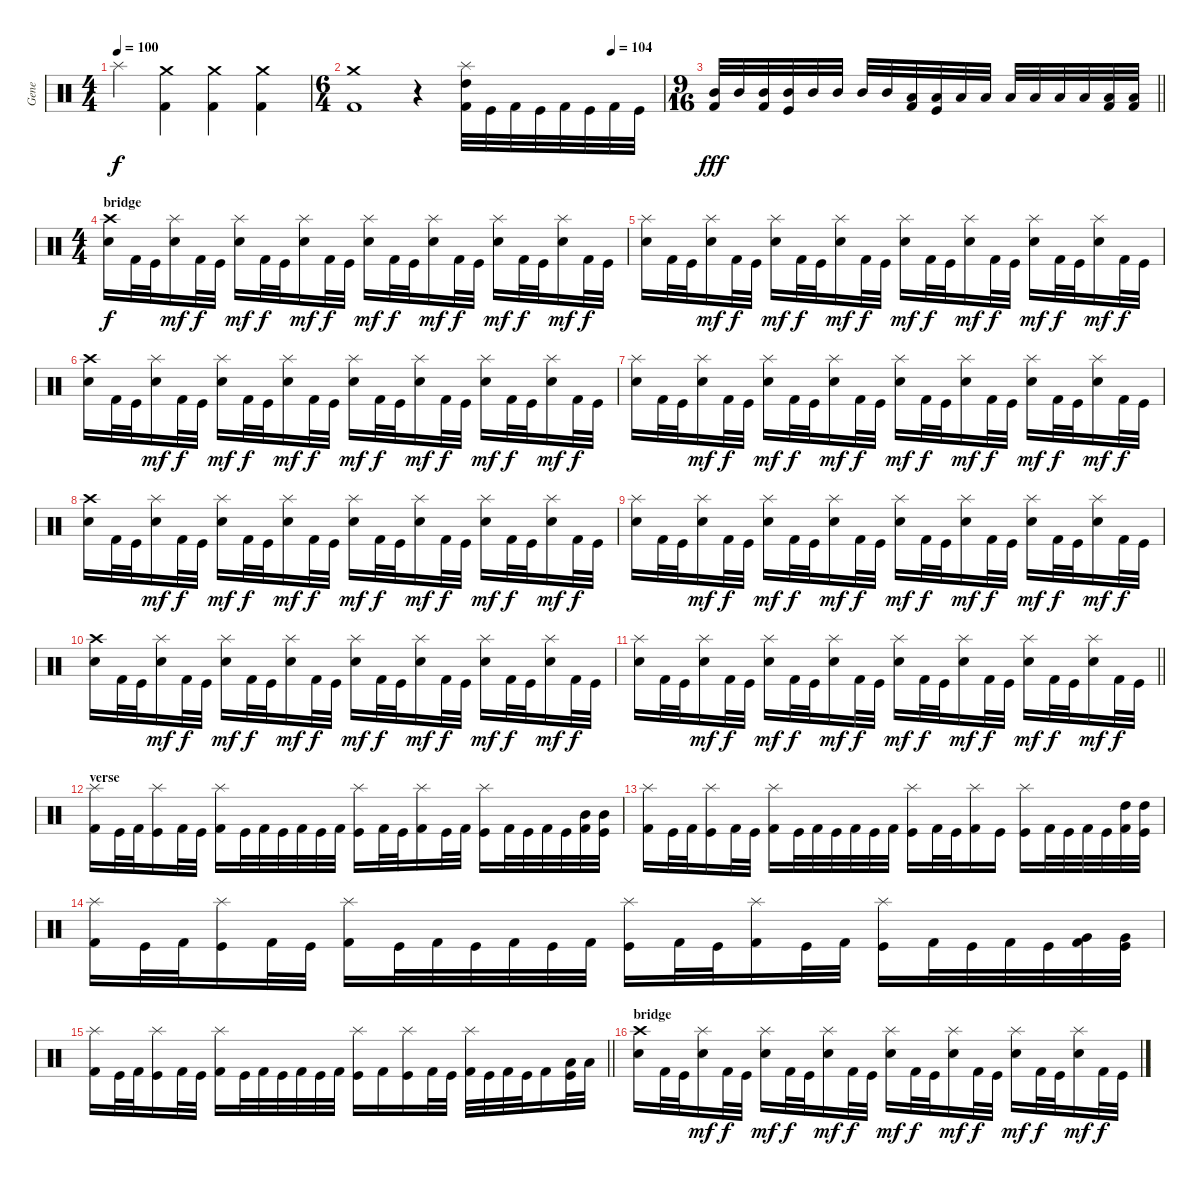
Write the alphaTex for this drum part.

\track ("Gene" "Gene") {instrument percussion}
\staff {score}
\articulation defaults
\ts (4 4)
\tempo 100
\clef neutral
\ks c "Splash (hit)".4{dy f}
("Crash medium (hit)" "Kick (hit) 2").4 ("Crash medium (hit)" "Kick (hit) 2").4 ("Crash medium (hit)" "Kick (hit) 2").4 |
\ts (6 4)
\tempo (104 0.8333333333333334)
("Crash medium (hit)" "Kick (hit) 2").1 r.4 ("Splash (hit)" "High Tom (hit)" "Kick (hit) 2").32 "Kick (hit)".32 "Kick (hit) 2".32 "Kick (hit)".32 "Kick (hit) 2".32 "Kick (hit)".32 "Kick (hit) 2".32 "Kick (hit)".32 |
\ts (9 16)
\barLineRight lightlight
("Mid Tom (hit)" "Kick (hit) 2").32{dy fff} "Mid Tom (hit)".32 ("Mid Tom (hit)" "Kick (hit) 2").32 ("Mid Tom (hit)" "Kick (hit)").32 "Mid Tom (hit)".32 "Mid Tom (hit)".32 "Mid Tom (hit)".32 "Mid Tom (hit)".32 ("Low Tom (hit)" "Kick (hit) 2").32 ("Low Tom (hit)" "Kick (hit)").32 "Low Tom (hit)".32 "Low Tom (hit)".32 "Low Tom (hit)".32 "Low Tom (hit)".32 "Low Tom (hit)".32 "Low Tom (hit)".32 ("Low Tom (hit)" "Kick (hit) 2").32 ("Low Tom (hit)" "Kick (hit) 2").32 |
\ts (4 4)
\section ("" "bridge")
("Crash high (hit)" "Snare (hit) 2").16{dy f} "Kick (hit) 2".32 "Kick (hit)".32 ("Splash (hit)" "Snare (hit) 2").16{dy mf} "Kick (hit) 2".32{dy f} "Kick (hit)".32 ("Splash (hit)" "Snare (hit) 2").16{dy mf} "Kick (hit) 2".32{dy f} "Kick (hit)".32 ("Splash (hit)" "Snare (hit) 2").16{dy mf} "Kick (hit) 2".32{dy f} "Kick (hit)".32 ("Splash (hit)" "Snare (hit) 2").16{dy mf} "Kick (hit) 2".32{dy f} "Kick (hit)".32 ("Splash (hit)" "Snare (hit) 2").16{dy mf} "Kick (hit) 2".32{dy f} "Kick (hit)".32 ("Splash (hit)" "Snare (hit) 2").16{dy mf} "Kick (hit) 2".32{dy f} "Kick (hit)".32 ("Splash (hit)" "Snare (hit) 2").16{dy mf} "Kick (hit) 2".32{dy f} "Kick (hit)".32 |
("Splash (hit)" "Snare (hit) 2").16 "Kick (hit) 2".32 "Kick (hit)".32 ("Splash (hit)" "Snare (hit) 2").16{dy mf} "Kick (hit) 2".32{dy f} "Kick (hit)".32 ("Splash (hit)" "Snare (hit) 2").16{dy mf} "Kick (hit) 2".32{dy f} "Kick (hit)".32 ("Splash (hit)" "Snare (hit) 2").16{dy mf} "Kick (hit) 2".32{dy f} "Kick (hit)".32 ("Splash (hit)" "Snare (hit) 2").16{dy mf} "Kick (hit) 2".32{dy f} "Kick (hit)".32 ("Splash (hit)" "Snare (hit) 2").16{dy mf} "Kick (hit) 2".32{dy f} "Kick (hit)".32 ("Splash (hit)" "Snare (hit) 2").16{dy mf} "Kick (hit) 2".32{dy f} "Kick (hit)".32 ("Splash (hit)" "Snare (hit) 2").16{dy mf} "Kick (hit) 2".32{dy f} "Kick (hit)".32 |
("Crash high (hit)" "Snare (hit) 2").16 "Kick (hit) 2".32 "Kick (hit)".32 ("Splash (hit)" "Snare (hit) 2").16{dy mf} "Kick (hit) 2".32{dy f} "Kick (hit)".32 ("Splash (hit)" "Snare (hit) 2").16{dy mf} "Kick (hit) 2".32{dy f} "Kick (hit)".32 ("Splash (hit)" "Snare (hit) 2").16{dy mf} "Kick (hit) 2".32{dy f} "Kick (hit)".32 ("Splash (hit)" "Snare (hit) 2").16{dy mf} "Kick (hit) 2".32{dy f} "Kick (hit)".32 ("Splash (hit)" "Snare (hit) 2").16{dy mf} "Kick (hit) 2".32{dy f} "Kick (hit)".32 ("Splash (hit)" "Snare (hit) 2").16{dy mf} "Kick (hit) 2".32{dy f} "Kick (hit)".32 ("Splash (hit)" "Snare (hit) 2").16{dy mf} "Kick (hit) 2".32{dy f} "Kick (hit)".32 |
("Splash (hit)" "Snare (hit) 2").16 "Kick (hit) 2".32 "Kick (hit)".32 ("Splash (hit)" "Snare (hit) 2").16{dy mf} "Kick (hit) 2".32{dy f} "Kick (hit)".32 ("Splash (hit)" "Snare (hit) 2").16{dy mf} "Kick (hit) 2".32{dy f} "Kick (hit)".32 ("Splash (hit)" "Snare (hit) 2").16{dy mf} "Kick (hit) 2".32{dy f} "Kick (hit)".32 ("Splash (hit)" "Snare (hit) 2").16{dy mf} "Kick (hit) 2".32{dy f} "Kick (hit)".32 ("Splash (hit)" "Snare (hit) 2").16{dy mf} "Kick (hit) 2".32{dy f} "Kick (hit)".32 ("Splash (hit)" "Snare (hit) 2").16{dy mf} "Kick (hit) 2".32{dy f} "Kick (hit)".32 ("Splash (hit)" "Snare (hit) 2").16{dy mf} "Kick (hit) 2".32{dy f} "Kick (hit)".32 |
("Crash high (hit)" "Snare (hit) 2").16 "Kick (hit) 2".32 "Kick (hit)".32 ("Splash (hit)" "Snare (hit) 2").16{dy mf} "Kick (hit) 2".32{dy f} "Kick (hit)".32 ("Splash (hit)" "Snare (hit) 2").16{dy mf} "Kick (hit) 2".32{dy f} "Kick (hit)".32 ("Splash (hit)" "Snare (hit) 2").16{dy mf} "Kick (hit) 2".32{dy f} "Kick (hit)".32 ("Splash (hit)" "Snare (hit) 2").16{dy mf} "Kick (hit) 2".32{dy f} "Kick (hit)".32 ("Splash (hit)" "Snare (hit) 2").16{dy mf} "Kick (hit) 2".32{dy f} "Kick (hit)".32 ("Splash (hit)" "Snare (hit) 2").16{dy mf} "Kick (hit) 2".32{dy f} "Kick (hit)".32 ("Splash (hit)" "Snare (hit) 2").16{dy mf} "Kick (hit) 2".32{dy f} "Kick (hit)".32 |
("Splash (hit)" "Snare (hit) 2").16 "Kick (hit) 2".32 "Kick (hit)".32 ("Splash (hit)" "Snare (hit) 2").16{dy mf} "Kick (hit) 2".32{dy f} "Kick (hit)".32 ("Splash (hit)" "Snare (hit) 2").16{dy mf} "Kick (hit) 2".32{dy f} "Kick (hit)".32 ("Splash (hit)" "Snare (hit) 2").16{dy mf} "Kick (hit) 2".32{dy f} "Kick (hit)".32 ("Splash (hit)" "Snare (hit) 2").16{dy mf} "Kick (hit) 2".32{dy f} "Kick (hit)".32 ("Splash (hit)" "Snare (hit) 2").16{dy mf} "Kick (hit) 2".32{dy f} "Kick (hit)".32 ("Splash (hit)" "Snare (hit) 2").16{dy mf} "Kick (hit) 2".32{dy f} "Kick (hit)".32 ("Splash (hit)" "Snare (hit) 2").16{dy mf} "Kick (hit) 2".32{dy f} "Kick (hit)".32 |
("Crash high (hit)" "Snare (hit) 2").16 "Kick (hit) 2".32 "Kick (hit)".32 ("Splash (hit)" "Snare (hit) 2").16{dy mf} "Kick (hit) 2".32{dy f} "Kick (hit)".32 ("Splash (hit)" "Snare (hit) 2").16{dy mf} "Kick (hit) 2".32{dy f} "Kick (hit)".32 ("Splash (hit)" "Snare (hit) 2").16{dy mf} "Kick (hit) 2".32{dy f} "Kick (hit)".32 ("Splash (hit)" "Snare (hit) 2").16{dy mf} "Kick (hit) 2".32{dy f} "Kick (hit)".32 ("Splash (hit)" "Snare (hit) 2").16{dy mf} "Kick (hit) 2".32{dy f} "Kick (hit)".32 ("Splash (hit)" "Snare (hit) 2").16{dy mf} "Kick (hit) 2".32{dy f} "Kick (hit)".32 ("Splash (hit)" "Snare (hit) 2").16{dy mf} "Kick (hit) 2".32{dy f} "Kick (hit)".32 |
\barLineRight lightlight
("Splash (hit)" "Snare (hit) 2").16 "Kick (hit) 2".32 "Kick (hit)".32 ("Splash (hit)" "Snare (hit) 2").16{dy mf} "Kick (hit) 2".32{dy f} "Kick (hit)".32 ("Splash (hit)" "Snare (hit) 2").16{dy mf} "Kick (hit) 2".32{dy f} "Kick (hit)".32 ("Splash (hit)" "Snare (hit) 2").16{dy mf} "Kick (hit) 2".32{dy f} "Kick (hit)".32 ("Splash (hit)" "Snare (hit) 2").16{dy mf} "Kick (hit) 2".32{dy f} "Kick (hit)".32 ("Splash (hit)" "Snare (hit) 2").16{dy mf} "Kick (hit) 2".32{dy f} "Kick (hit)".32 ("Splash (hit)" "Snare (hit) 2").16{dy mf} "Kick (hit) 2".32{dy f} "Kick (hit)".32 ("Splash (hit)" "Snare (hit) 2").16{dy mf} "Kick (hit) 2".32{dy f} "Kick (hit)".32 |
\section ("" "verse")
("Splash (hit)" "Kick (hit) 2").16 "Kick (hit)".32 "Kick (hit) 2".32 ("Splash (hit)" "Kick (hit)").16 "Kick (hit) 2".32 "Kick (hit)".32 ("Splash (hit)" "Kick (hit) 2").16 "Kick (hit)".32 "Kick (hit) 2".32 "Kick (hit)".32 "Kick (hit) 2".32 "Kick (hit)".32 "Kick (hit) 2".32 ("Splash (hit)" "Kick (hit)").16 "Kick (hit) 2".32 "Kick (hit)".32 ("Splash (hit)" "Kick (hit) 2").16 "Kick (hit)".32 "Kick (hit) 2".32 ("Splash (hit)" "Kick (hit)").16 "Kick (hit) 2".32 "Kick (hit)".32 "Kick (hit) 2".32 "Kick (hit)".32 ("Mid Tom (hit)" "Kick (hit) 2").32 ("Mid Tom (hit)" "Kick (hit)").32 |
("Splash (hit)" "Kick (hit) 2").16 "Kick (hit)".32 "Kick (hit) 2".32 ("Splash (hit)" "Kick (hit)").16 "Kick (hit) 2".32 "Kick (hit)".32 ("Splash (hit)" "Kick (hit) 2").16 "Kick (hit)".32 "Kick (hit) 2".32 "Kick (hit)".32 "Kick (hit) 2".32 "Kick (hit)".32 "Kick (hit) 2".32 ("Splash (hit)" "Kick (hit)").16 "Kick (hit) 2".32 "Kick (hit)".32 ("Splash (hit)" "Kick (hit) 2").16 "Kick (hit)".16 ("Splash (hit)" "Kick (hit)").16 "Kick (hit) 2".32 "Kick (hit)".32 "Kick (hit) 2".32 "Kick (hit)".32 ("High Tom (hit)" "Kick (hit) 2").32 ("High Tom (hit)" "Kick (hit)").32 |
("Splash (hit)" "Kick (hit) 2").16 "Kick (hit)".32 "Kick (hit) 2".32 ("Splash (hit)" "Kick (hit)").16 "Kick (hit) 2".32 "Kick (hit)".32 ("Splash (hit)" "Kick (hit) 2").16 "Kick (hit)".32 "Kick (hit) 2".32 "Kick (hit)".32 "Kick (hit) 2".32 "Kick (hit)".32 "Kick (hit) 2".32 ("Splash (hit)" "Kick (hit)").16 "Kick (hit) 2".32 "Kick (hit)".32 ("Splash (hit)" "Kick (hit) 2").16 "Kick (hit)".32 "Kick (hit) 2".32 ("Splash (hit)" "Kick (hit)").16 "Kick (hit) 2".32 "Kick (hit)".32 "Kick (hit) 2".32 "Kick (hit)".32 ("Very Low Tom (hit)" "Kick (hit) 2").32 ("Very Low Tom (hit)" "Kick (hit)").32 |
\barLineRight lightlight
("Splash (hit)" "Kick (hit) 2").16 "Kick (hit)".32 "Kick (hit) 2".32 ("Splash (hit)" "Kick (hit)").16 "Kick (hit) 2".32 "Kick (hit)".32 ("Splash (hit)" "Kick (hit) 2").16 "Kick (hit)".32 "Kick (hit) 2".32 "Kick (hit)".32 "Kick (hit) 2".32 "Kick (hit)".32 "Kick (hit) 2".32 ("Splash (hit)" "Kick (hit)").16 "Kick (hit) 2".16 ("Splash (hit)" "Kick (hit)").16 "Kick (hit) 2".32 "Kick (hit)".32 ("Splash (hit)" "Kick (hit) 2").32 "Kick (hit)".32 "Kick (hit) 2".32 "Kick (hit)".32 "Kick (hit) 2".16 ("Low Tom (hit)" "Kick (hit)").32 "Low Tom (hit)".32 |
\section ("" "bridge")
("Crash high (hit)" "Snare (hit) 2").16 "Kick (hit) 2".32 "Kick (hit)".32 ("Splash (hit)" "Snare (hit) 2").16{dy mf} "Kick (hit) 2".32{dy f} "Kick (hit)".32 ("Splash (hit)" "Snare (hit) 2").16{dy mf} "Kick (hit) 2".32{dy f} "Kick (hit)".32 ("Splash (hit)" "Snare (hit) 2").16{dy mf} "Kick (hit) 2".32{dy f} "Kick (hit)".32 ("Splash (hit)" "Snare (hit) 2").16{dy mf} "Kick (hit) 2".32{dy f} "Kick (hit)".32 ("Splash (hit)" "Snare (hit) 2").16{dy mf} "Kick (hit) 2".32{dy f} "Kick (hit)".32 ("Splash (hit)" "Snare (hit) 2").16{dy mf} "Kick (hit) 2".32{dy f} "Kick (hit)".32 ("Splash (hit)" "Snare (hit) 2").16{dy mf} "Kick (hit) 2".32{dy f} "Kick (hit)".32
